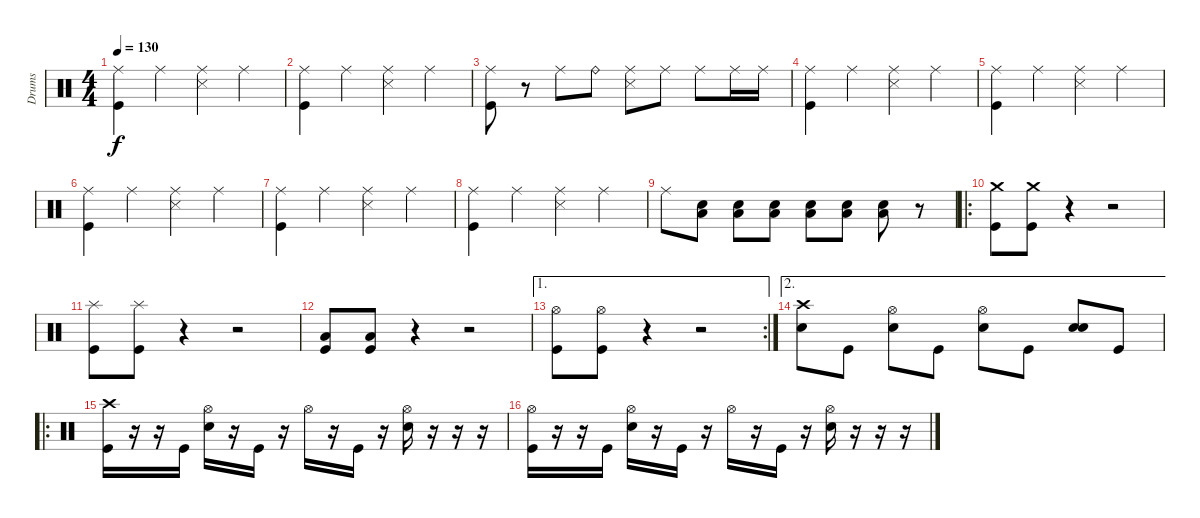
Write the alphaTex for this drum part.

\track ("Drums" "Drums") {instrument percussion}
\staff {score}
\articulation defaults
\ts (4 4)
\tempo 130
\clef neutral
\ks c
("Ride (middle)" "Kick (hit)").4{dy f} "Ride (middle)".4 ("Ride (middle)" "Snare (side stick) 3").4 "Ride (middle)".4 |
("Ride (middle)" "Kick (hit)").4 "Ride (middle)".4 ("Ride (middle)" "Snare (side stick) 3").4 "Ride (middle)".4 |
("Ride (middle)" "Kick (hit)").8 r.8 "Ride (middle)".8 "Ride (bell)".8 ("Ride (middle)" "Snare (side stick) 3").8 "Ride (middle)".8 "Ride (middle)".8 "Ride (middle)".16 "Ride (middle)".16 |
("Ride (middle)" "Kick (hit)").4 "Ride (middle)".4 ("Ride (middle)" "Snare (side stick) 3").4 "Ride (middle)".4 |
("Ride (middle)" "Kick (hit)").4 "Ride (middle)".4 ("Ride (middle)" "Snare (side stick) 3").4 "Ride (middle)".4 |
("Ride (middle)" "Kick (hit)").4 "Ride (middle)".4 ("Ride (middle)" "Snare (side stick) 3").4 "Ride (middle)".4 |
("Ride (middle)" "Kick (hit)").4 "Ride (middle)".4 ("Ride (middle)" "Snare (side stick) 3").4 "Ride (middle)".4 |
("Ride (middle)" "Kick (hit)").4 "Ride (middle)".4 ("Ride (middle)" "Snare (side stick) 3").4 "Ride (middle)".4 |
"Ride (middle)".8 ("Low Floor Tom (hit)" "Snare (hit) 2").8 ("Low Floor Tom (hit)" "Snare (hit) 2").8 ("Low Floor Tom (hit)" "Snare (hit) 2").8 ("Low Floor Tom (hit)" "Snare (hit) 2").8 ("Low Floor Tom (hit)" "Snare (hit) 2").8 ("Low Floor Tom (hit)" "Snare (hit) 2").8 r.8 |
\ro
("Crash medium (hit)" "Kick (hit)").8 ("Crash medium (hit)" "Kick (hit)").8 r.4 r.2 |
("Splash (hit)" "Kick (hit)").8 ("Splash (hit)" "Kick (hit)").8 r.4 r.2 |
("Low Tom (hit)" "Kick (hit)").8 ("Low Tom (hit)" "Kick (hit)").8 r.4 r.2 |
\ae 1
\rc 2
("Hi-Hat (open)" "Kick (hit)").8 ("Hi-Hat (open)" "Kick (hit)").8 r.4 r.2 |
\ae 2
("Crash high (hit)" "Snare (hit) 2").8 "Kick (hit)".8 ("Hi-Hat (open)" "Snare (hit) 2").8 "Kick (hit)".8 ("Hi-Hat (open)" "Snare (hit) 2").8 "Kick (hit)".8 ("Snare (hit) 2" "Snare (hit) 2").8 "Kick (hit)".8 |
\ro
("Crash high (hit)" "Kick (hit)").16 r.16 r.16 "Kick (hit)".16 ("Hi-Hat (open)" "Snare (hit) 2").16 r.16 "Kick (hit)".16 r.16 "Hi-Hat (open)".16 r.16 "Kick (hit)".16 r.16 ("Hi-Hat (open)" "Snare (hit) 2").16 r.16 r.16 r.16 |
("Hi-Hat (open)" "Kick (hit)").16 r.16 r.16 "Kick (hit)".16 ("Hi-Hat (open)" "Snare (hit) 2").16 r.16 "Kick (hit)".16 r.16 "Hi-Hat (open)".16 r.16 "Kick (hit)".16 r.16 ("Hi-Hat (open)" "Snare (hit) 2").16 r.16 r.16 r.16
